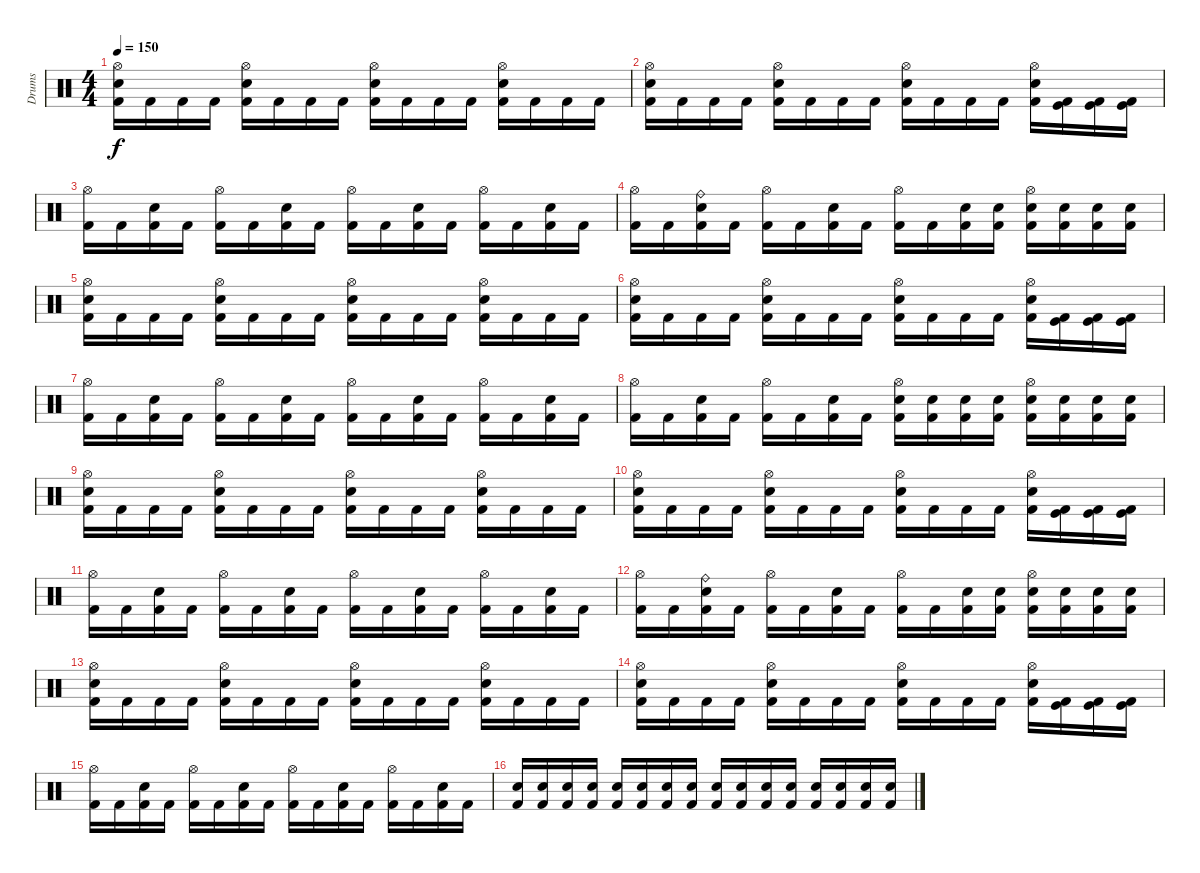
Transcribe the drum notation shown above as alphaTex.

\track ("Drums" "Drums") {instrument percussion}
\staff {score}
\articulation defaults
\ts (4 4)
\tempo 150
\clef neutral
\ks c
("Hi-Hat (open)" "Electric Snare (hit)" "Kick (hit) 2").16{dy f} "Kick (hit) 2".16 "Kick (hit) 2".16 "Kick (hit) 2".16 ("Hi-Hat (open)" "Electric Snare (hit)" "Kick (hit) 2").16 "Kick (hit) 2".16 "Kick (hit) 2".16 "Kick (hit) 2".16 ("Hi-Hat (open)" "Electric Snare (hit)" "Kick (hit) 2").16 "Kick (hit) 2".16 "Kick (hit) 2".16 "Kick (hit) 2".16 ("Hi-Hat (open)" "Electric Snare (hit)" "Kick (hit) 2").16 "Kick (hit) 2".16 "Kick (hit) 2".16 "Kick (hit) 2".16 |
("Hi-Hat (open)" "Electric Snare (hit)" "Kick (hit) 2").16 "Kick (hit) 2".16 "Kick (hit) 2".16 "Kick (hit) 2".16 ("Hi-Hat (open)" "Electric Snare (hit)" "Kick (hit) 2").16 "Kick (hit) 2".16 "Kick (hit) 2".16 "Kick (hit) 2".16 ("Hi-Hat (open)" "Electric Snare (hit)" "Kick (hit) 2").16 "Kick (hit) 2".16 "Kick (hit) 2".16 "Kick (hit) 2".16 ("Hi-Hat (open)" "Electric Snare (hit)" "Kick (hit) 2").16 ("Kick (hit)" "Kick (hit) 2").16 ("Kick (hit)" "Kick (hit) 2").16 ("Kick (hit)" "Kick (hit) 2").16 |
("Hi-Hat (open)" "Kick (hit) 2").16 "Kick (hit) 2".16 ("Electric Snare (hit)" "Kick (hit) 2").16 "Kick (hit) 2".16 ("Hi-Hat (open)" "Kick (hit) 2").16 "Kick (hit) 2".16 ("Electric Snare (hit)" "Kick (hit) 2").16 "Kick (hit) 2".16 ("Hi-Hat (open)" "Kick (hit) 2").16 "Kick (hit) 2".16 ("Electric Snare (hit)" "Kick (hit) 2").16 "Kick (hit) 2".16 ("Hi-Hat (open)" "Kick (hit) 2").16 "Kick (hit) 2".16 ("Electric Snare (hit)" "Kick (hit) 2").16 "Kick (hit) 2".16 |
("Hi-Hat (open)" "Kick (hit) 2").16 "Kick (hit) 2".16 ("Ride (bell)" "Electric Snare (hit)" "Kick (hit) 2").16 "Kick (hit) 2".16 ("Hi-Hat (open)" "Kick (hit) 2").16 "Kick (hit) 2".16 ("Electric Snare (hit)" "Kick (hit) 2").16 "Kick (hit) 2".16 ("Hi-Hat (open)" "Kick (hit) 2").16 "Kick (hit) 2".16 ("Snare (hit) 2" "Kick (hit) 2").16 ("Snare (hit) 2" "Kick (hit) 2").16 ("Hi-Hat (open)" "Snare (hit) 2" "Kick (hit) 2").16 ("Snare (hit) 2" "Kick (hit) 2").16 ("Snare (hit) 2" "Kick (hit) 2").16 ("Snare (hit) 2" "Kick (hit) 2").16 |
("Hi-Hat (open)" "Electric Snare (hit)" "Kick (hit) 2").16 "Kick (hit) 2".16 "Kick (hit) 2".16 "Kick (hit) 2".16 ("Hi-Hat (open)" "Electric Snare (hit)" "Kick (hit) 2").16 "Kick (hit) 2".16 "Kick (hit) 2".16 "Kick (hit) 2".16 ("Hi-Hat (open)" "Electric Snare (hit)" "Kick (hit) 2").16 "Kick (hit) 2".16 "Kick (hit) 2".16 "Kick (hit) 2".16 ("Hi-Hat (open)" "Electric Snare (hit)" "Kick (hit) 2").16 "Kick (hit) 2".16 "Kick (hit) 2".16 "Kick (hit) 2".16 |
("Hi-Hat (open)" "Electric Snare (hit)" "Kick (hit) 2").16 "Kick (hit) 2".16 "Kick (hit) 2".16 "Kick (hit) 2".16 ("Hi-Hat (open)" "Electric Snare (hit)" "Kick (hit) 2").16 "Kick (hit) 2".16 "Kick (hit) 2".16 "Kick (hit) 2".16 ("Hi-Hat (open)" "Electric Snare (hit)" "Kick (hit) 2").16 "Kick (hit) 2".16 "Kick (hit) 2".16 "Kick (hit) 2".16 ("Hi-Hat (open)" "Electric Snare (hit)" "Kick (hit) 2").16 ("Kick (hit)" "Kick (hit) 2").16 ("Kick (hit)" "Kick (hit) 2").16 ("Kick (hit)" "Kick (hit) 2").16 |
("Hi-Hat (open)" "Kick (hit) 2").16 "Kick (hit) 2".16 ("Electric Snare (hit)" "Kick (hit) 2").16 "Kick (hit) 2".16 ("Hi-Hat (open)" "Kick (hit) 2").16 "Kick (hit) 2".16 ("Electric Snare (hit)" "Kick (hit) 2").16 "Kick (hit) 2".16 ("Hi-Hat (open)" "Kick (hit) 2").16 "Kick (hit) 2".16 ("Electric Snare (hit)" "Kick (hit) 2").16 "Kick (hit) 2".16 ("Hi-Hat (open)" "Kick (hit) 2").16 "Kick (hit) 2".16 ("Electric Snare (hit)" "Kick (hit) 2").16 "Kick (hit) 2".16 |
("Hi-Hat (open)" "Kick (hit) 2").16 "Kick (hit) 2".16 ("Electric Snare (hit)" "Kick (hit) 2").16 "Kick (hit) 2".16 ("Hi-Hat (open)" "Kick (hit) 2").16 "Kick (hit) 2".16 ("Electric Snare (hit)" "Kick (hit) 2").16 "Kick (hit) 2".16 ("Hi-Hat (open)" "Snare (hit) 2" "Kick (hit) 2").16 ("Snare (hit) 2" "Kick (hit) 2").16 ("Snare (hit) 2" "Kick (hit) 2").16 ("Snare (hit) 2" "Kick (hit) 2").16 ("Hi-Hat (open)" "Snare (hit) 2" "Kick (hit) 2").16 ("Snare (hit) 2" "Kick (hit) 2").16 ("Snare (hit) 2" "Kick (hit) 2").16 ("Snare (hit) 2" "Kick (hit) 2").16 |
("Hi-Hat (open)" "Electric Snare (hit)" "Kick (hit) 2").16 "Kick (hit) 2".16 "Kick (hit) 2".16 "Kick (hit) 2".16 ("Hi-Hat (open)" "Electric Snare (hit)" "Kick (hit) 2").16 "Kick (hit) 2".16 "Kick (hit) 2".16 "Kick (hit) 2".16 ("Hi-Hat (open)" "Electric Snare (hit)" "Kick (hit) 2").16 "Kick (hit) 2".16 "Kick (hit) 2".16 "Kick (hit) 2".16 ("Hi-Hat (open)" "Electric Snare (hit)" "Kick (hit) 2").16 "Kick (hit) 2".16 "Kick (hit) 2".16 "Kick (hit) 2".16 |
("Hi-Hat (open)" "Electric Snare (hit)" "Kick (hit) 2").16 "Kick (hit) 2".16 "Kick (hit) 2".16 "Kick (hit) 2".16 ("Hi-Hat (open)" "Electric Snare (hit)" "Kick (hit) 2").16 "Kick (hit) 2".16 "Kick (hit) 2".16 "Kick (hit) 2".16 ("Hi-Hat (open)" "Electric Snare (hit)" "Kick (hit) 2").16 "Kick (hit) 2".16 "Kick (hit) 2".16 "Kick (hit) 2".16 ("Hi-Hat (open)" "Electric Snare (hit)" "Kick (hit) 2").16 ("Kick (hit)" "Kick (hit) 2").16 ("Kick (hit)" "Kick (hit) 2").16 ("Kick (hit)" "Kick (hit) 2").16 |
("Hi-Hat (open)" "Kick (hit) 2").16 "Kick (hit) 2".16 ("Electric Snare (hit)" "Kick (hit) 2").16 "Kick (hit) 2".16 ("Hi-Hat (open)" "Kick (hit) 2").16 "Kick (hit) 2".16 ("Electric Snare (hit)" "Kick (hit) 2").16 "Kick (hit) 2".16 ("Hi-Hat (open)" "Kick (hit) 2").16 "Kick (hit) 2".16 ("Electric Snare (hit)" "Kick (hit) 2").16 "Kick (hit) 2".16 ("Hi-Hat (open)" "Kick (hit) 2").16 "Kick (hit) 2".16 ("Electric Snare (hit)" "Kick (hit) 2").16 "Kick (hit) 2".16 |
("Hi-Hat (open)" "Kick (hit) 2").16 "Kick (hit) 2".16 ("Ride (bell)" "Electric Snare (hit)" "Kick (hit) 2").16 "Kick (hit) 2".16 ("Hi-Hat (open)" "Kick (hit) 2").16 "Kick (hit) 2".16 ("Electric Snare (hit)" "Kick (hit) 2").16 "Kick (hit) 2".16 ("Hi-Hat (open)" "Kick (hit) 2").16 "Kick (hit) 2".16 ("Snare (hit) 2" "Kick (hit) 2").16 ("Snare (hit) 2" "Kick (hit) 2").16 ("Hi-Hat (open)" "Snare (hit) 2" "Kick (hit) 2").16 ("Snare (hit) 2" "Kick (hit) 2").16 ("Snare (hit) 2" "Kick (hit) 2").16 ("Snare (hit) 2" "Kick (hit) 2").16 |
("Hi-Hat (open)" "Electric Snare (hit)" "Kick (hit) 2").16 "Kick (hit) 2".16 "Kick (hit) 2".16 "Kick (hit) 2".16 ("Hi-Hat (open)" "Electric Snare (hit)" "Kick (hit) 2").16 "Kick (hit) 2".16 "Kick (hit) 2".16 "Kick (hit) 2".16 ("Hi-Hat (open)" "Electric Snare (hit)" "Kick (hit) 2").16 "Kick (hit) 2".16 "Kick (hit) 2".16 "Kick (hit) 2".16 ("Hi-Hat (open)" "Electric Snare (hit)" "Kick (hit) 2").16 "Kick (hit) 2".16 "Kick (hit) 2".16 "Kick (hit) 2".16 |
("Hi-Hat (open)" "Electric Snare (hit)" "Kick (hit) 2").16 "Kick (hit) 2".16 "Kick (hit) 2".16 "Kick (hit) 2".16 ("Hi-Hat (open)" "Electric Snare (hit)" "Kick (hit) 2").16 "Kick (hit) 2".16 "Kick (hit) 2".16 "Kick (hit) 2".16 ("Hi-Hat (open)" "Electric Snare (hit)" "Kick (hit) 2").16 "Kick (hit) 2".16 "Kick (hit) 2".16 "Kick (hit) 2".16 ("Hi-Hat (open)" "Electric Snare (hit)" "Kick (hit) 2").16 ("Kick (hit)" "Kick (hit) 2").16 ("Kick (hit)" "Kick (hit) 2").16 ("Kick (hit)" "Kick (hit) 2").16 |
("Hi-Hat (open)" "Kick (hit) 2").16 "Kick (hit) 2".16 ("Electric Snare (hit)" "Kick (hit) 2").16 "Kick (hit) 2".16 ("Hi-Hat (open)" "Kick (hit) 2").16 "Kick (hit) 2".16 ("Electric Snare (hit)" "Kick (hit) 2").16 "Kick (hit) 2".16 ("Hi-Hat (open)" "Kick (hit) 2").16 "Kick (hit) 2".16 ("Electric Snare (hit)" "Kick (hit) 2").16 "Kick (hit) 2".16 ("Hi-Hat (open)" "Kick (hit) 2").16 "Kick (hit) 2".16 ("Electric Snare (hit)" "Kick (hit) 2").16 "Kick (hit) 2".16 |
("Snare (hit) 2" "Kick (hit) 2").16 ("Snare (hit) 2" "Kick (hit) 2").16 ("Snare (hit) 2" "Kick (hit) 2").16 ("Snare (hit) 2" "Kick (hit) 2").16 ("Snare (hit) 2" "Kick (hit) 2").16 ("Snare (hit) 2" "Kick (hit) 2").16 ("Snare (hit) 2" "Kick (hit) 2").16 ("Snare (hit) 2" "Kick (hit) 2").16 ("Snare (hit) 2" "Kick (hit) 2").16 ("Snare (hit) 2" "Kick (hit) 2").16 ("Snare (hit) 2" "Kick (hit) 2").16 ("Snare (hit) 2" "Kick (hit) 2").16 ("Snare (hit) 2" "Kick (hit) 2").16 ("Snare (hit) 2" "Kick (hit) 2").16 ("Snare (hit) 2" "Kick (hit) 2").16 ("Snare (hit) 2" "Kick (hit) 2").16
